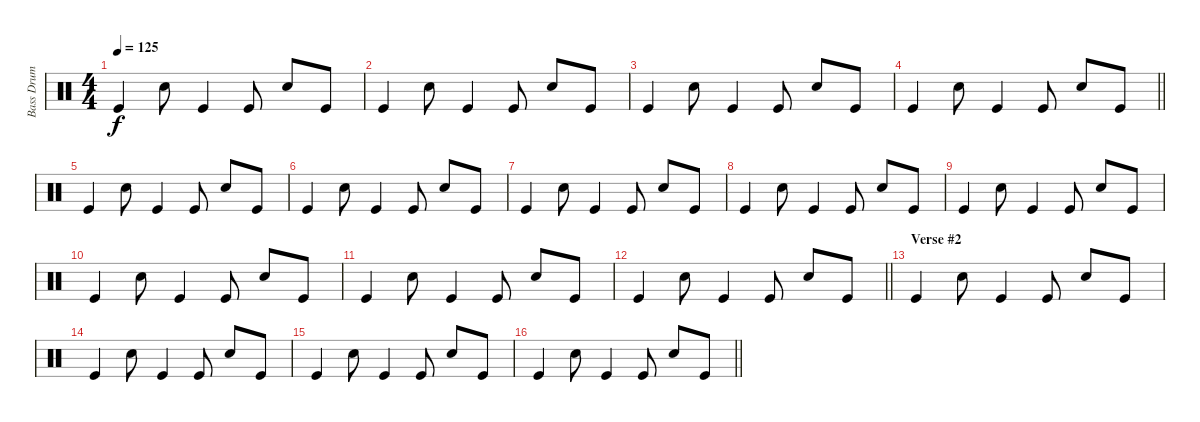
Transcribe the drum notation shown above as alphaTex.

\track ("Bass Drum and Clap" "Bass Drum ") {instrument percussion}
\staff {score}
\articulation defaults
\ts (4 4)
\tempo 125
\clef neutral
\ks c "Kick (hit)".4{dy f} "Hand Clap (hit)".8 "Kick (hit)".4 "Kick (hit)".8 "Hand Clap (hit)".8 "Kick (hit)".8
|
"Kick (hit)".4 "Hand Clap (hit)".8 "Kick (hit)".4 "Kick (hit)".8 "Hand Clap (hit)".8 "Kick (hit)".8 |
"Kick (hit)".4 "Hand Clap (hit)".8 "Kick (hit)".4 "Kick (hit)".8 "Hand Clap (hit)".8 "Kick (hit)".8 |
\barLineRight lightlight "Kick (hit)".4 "Hand Clap (hit)".8 "Kick (hit)".4 "Kick (hit)".8 "Hand Clap (hit)".8 "Kick (hit)".8
|
"Kick (hit)".4 "Hand Clap (hit)".8 "Kick (hit)".4 "Kick (hit)".8 "Hand Clap (hit)".8 "Kick (hit)".8 |
"Kick (hit)".4 "Hand Clap (hit)".8 "Kick (hit)".4 "Kick (hit)".8 "Hand Clap (hit)".8 "Kick (hit)".8 |
"Kick (hit)".4 "Hand Clap (hit)".8 "Kick (hit)".4 "Kick (hit)".8 "Hand Clap (hit)".8 "Kick (hit)".8 |
"Kick (hit)".4 "Hand Clap (hit)".8 "Kick (hit)".4 "Kick (hit)".8 "Hand Clap (hit)".8 "Kick (hit)".8 |
"Kick (hit)".4 "Hand Clap (hit)".8 "Kick (hit)".4 "Kick (hit)".8 "Hand Clap (hit)".8 "Kick (hit)".8 |
"Kick (hit)".4 "Hand Clap (hit)".8 "Kick (hit)".4 "Kick (hit)".8 "Hand Clap (hit)".8 "Kick (hit)".8 |
"Kick (hit)".4 "Hand Clap (hit)".8 "Kick (hit)".4 "Kick (hit)".8 "Hand Clap (hit)".8 "Kick (hit)".8 |
\barLineRight lightlight "Kick (hit)".4 "Hand Clap (hit)".8 "Kick (hit)".4 "Kick (hit)".8 "Hand Clap (hit)".8 "Kick (hit)".8
|
\section ("" "Verse #2")
"Kick (hit)".4 "Hand Clap (hit)".8 "Kick (hit)".4 "Kick (hit)".8 "Hand Clap (hit)".8 "Kick (hit)".8 |
"Kick (hit)".4 "Hand Clap (hit)".8 "Kick (hit)".4 "Kick (hit)".8 "Hand Clap (hit)".8 "Kick (hit)".8 |
"Kick (hit)".4 "Hand Clap (hit)".8 "Kick (hit)".4 "Kick (hit)".8 "Hand Clap (hit)".8 "Kick (hit)".8 |
\barLineRight lightlight "Kick (hit)".4 "Hand Clap (hit)".8 "Kick (hit)".4 "Kick (hit)".8 "Hand Clap (hit)".8 "Kick (hit)".8
